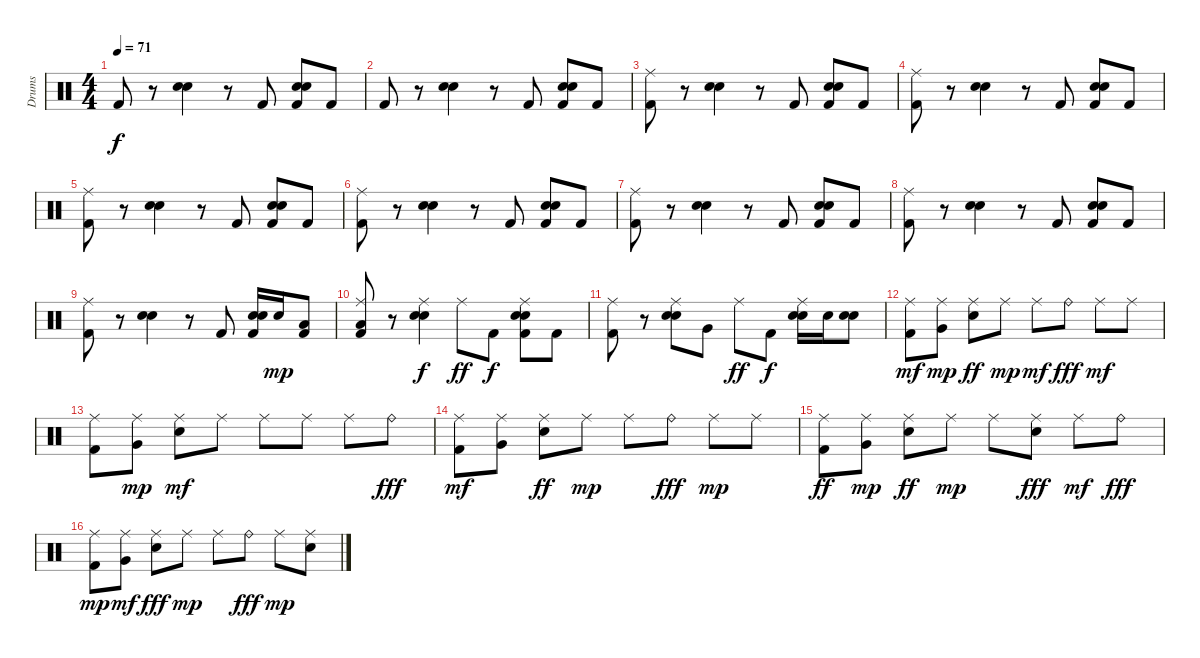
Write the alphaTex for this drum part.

\track ("Drums" "Drums") {instrument percussion}
\staff {score}
\articulation defaults
\ts (4 4)
\tempo 71
\clef neutral
\ks c "Kick (hit) 2".8{dy f}
r.8 ("Snare (hit) 2" "Electric Snare (hit)").4 r.8 "Kick (hit) 2".8 ("Snare (hit) 2" "Electric Snare (hit)" "Kick (hit) 2").8 "Kick (hit) 2".8 |
"Kick (hit) 2".8 r.8 ("Snare (hit) 2" "Electric Snare (hit)").4 r.8 "Kick (hit) 2".8 ("Snare (hit) 2" "Electric Snare (hit)" "Kick (hit) 2").8 "Kick (hit) 2".8 |
("Ride (middle)" "Kick (hit) 2").8 r.8 ("Snare (hit) 2" "Electric Snare (hit)").4 r.8 "Kick (hit) 2".8 ("Snare (hit) 2" "Electric Snare (hit)" "Kick (hit) 2").8 "Kick (hit) 2".8 |
("Ride (middle)" "Kick (hit) 2").8 r.8 ("Snare (hit) 2" "Electric Snare (hit)").4 r.8 "Kick (hit) 2".8 ("Snare (hit) 2" "Electric Snare (hit)" "Kick (hit) 2").8 "Kick (hit) 2".8 |
("Ride (middle)" "Kick (hit) 2").8 r.8 ("Snare (hit) 2" "Electric Snare (hit)").4 r.8 "Kick (hit) 2".8 ("Snare (hit) 2" "Electric Snare (hit)" "Kick (hit) 2").8 "Kick (hit) 2".8 |
("Ride (middle)" "Kick (hit) 2").8 r.8 ("Snare (hit) 2" "Electric Snare (hit)").4 r.8 "Kick (hit) 2".8 ("Snare (hit) 2" "Electric Snare (hit)" "Kick (hit) 2").8 "Kick (hit) 2".8 |
("Ride (middle)" "Kick (hit) 2").8 r.8 ("Snare (hit) 2" "Electric Snare (hit)").4 r.8 "Kick (hit) 2".8 ("Snare (hit) 2" "Electric Snare (hit)" "Kick (hit) 2").8 "Kick (hit) 2".8 |
("Ride (middle)" "Kick (hit) 2").8 r.8 ("Snare (hit) 2" "Electric Snare (hit)").4 r.8 "Kick (hit) 2".8 ("Snare (hit) 2" "Electric Snare (hit)" "Kick (hit) 2").8 "Kick (hit) 2".8 |
("Ride (middle)" "Kick (hit) 2").8 r.8 ("Snare (hit) 2" "Electric Snare (hit)").4 r.8 "Kick (hit) 2".8 ("Snare (hit) 2" "Electric Snare (hit)" "Kick (hit) 2").16 "Electric Snare (hit)".16{dy mp} ("Low Floor Tom (hit)" "Kick (hit) 2").8 |
("Ride (middle)" "Low Floor Tom (hit)" "Kick (hit) 2").8 r.8 ("Ride (middle)" "Snare (hit) 2" "Electric Snare (hit)").4{dy f} "Ride (middle)".8{dy ff} "Kick (hit) 2".8{dy f} ("Ride (middle)" "Snare (hit) 2" "Electric Snare (hit)" "Kick (hit) 2").8 "Kick (hit) 2".8 |
("Ride (middle)" "Kick (hit) 2").8 r.8 ("Ride (middle)" "Snare (hit) 2" "Electric Snare (hit)").8 "Very Low Tom (hit)".8 "Ride (middle)".8{dy ff} "Kick (hit) 2".8{dy f} ("Ride (middle)" "Snare (hit) 2" "Electric Snare (hit)").16 "Electric Snare (hit)".16 ("Snare (hit) 2" "Electric Snare (hit)").8 |
("Ride (middle)" "Kick (hit) 2").8{dy mf} ("Ride (middle)" "Very Low Tom (hit)").8{dy mp} ("Ride (middle)" "Electric Snare (hit)").8{dy ff} "Ride (middle)".8{dy mp} "Ride (middle)".8{dy mf} "Ride (bell)".8{dy fff} "Ride (middle)".8{dy mf} "Ride (middle)".8 |
("Ride (middle)" "Kick (hit) 2").8 ("Ride (middle)" "Very Low Tom (hit)").8{dy mp} ("Ride (middle)" "Electric Snare (hit)").8{dy mf} "Ride (middle)".8 "Ride (middle)".8 "Ride (middle)".8 "Ride (middle)".8 "Ride (bell)".8{dy fff} |
("Ride (middle)" "Kick (hit) 2").8{dy mf} ("Ride (middle)" "Very Low Tom (hit)").8 ("Ride (middle)" "Electric Snare (hit)").8{dy ff} "Ride (middle)".8{dy mp} "Ride (middle)".8 "Ride (bell)".8{dy fff} "Ride (middle)".8{dy mp} "Ride (middle)".8 |
("Ride (middle)" "Kick (hit) 2").8{dy ff} ("Ride (middle)" "Very Low Tom (hit)").8{dy mp} ("Ride (middle)" "Electric Snare (hit)").8{dy ff} "Ride (middle)".8{dy mp} "Ride (middle)".8 ("Ride (middle)" "Electric Snare (hit)").8{dy fff} "Ride (middle)".8{dy mf} "Ride (bell)".8{dy fff} |
("Ride (middle)" "Kick (hit) 2").8{dy mp} ("Ride (middle)" "Very Low Tom (hit)").8{dy mf} ("Ride (middle)" "Electric Snare (hit)").8{dy fff} "Ride (middle)".8{dy mp} "Ride (middle)".8 "Ride (bell)".8{dy fff} "Ride (middle)".8{dy mp} ("Ride (middle)" "Electric Snare (hit)").8
